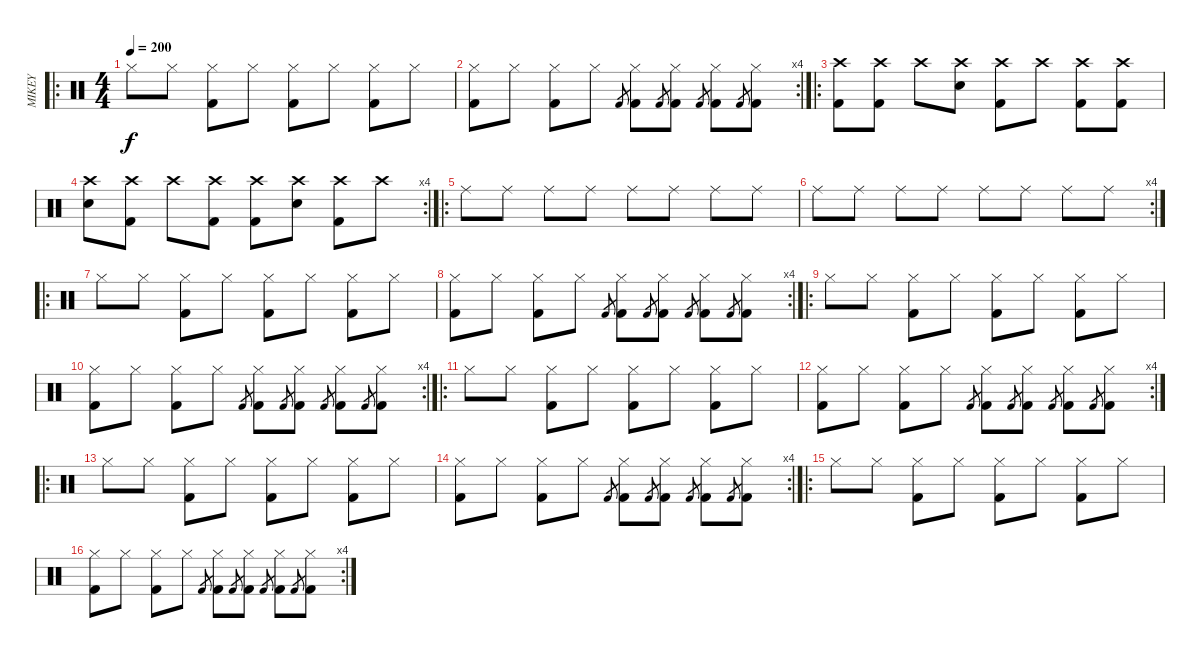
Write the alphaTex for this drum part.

\track ("MIKEY" "MIKEY") {instrument percussion}
\staff {score}
\articulation defaults
\ro
\ts (4 4)
\tempo 200
\clef neutral
\ks c "Hi-Hat (closed)".8{dy f} "Hi-Hat (closed)".8
("Kick (hit) 2" "Hi-Hat (closed)").8 "Hi-Hat (closed)".8 ("Kick (hit) 2" "Hi-Hat (closed)").8 "Hi-Hat (closed)".8 ("Kick (hit) 2" "Hi-Hat (closed)").8 "Hi-Hat (closed)".8 |
\rc 4
("Kick (hit) 2" "Hi-Hat (closed)").8 "Hi-Hat (closed)".8 ("Kick (hit) 2" "Hi-Hat (closed)").8 "Hi-Hat (closed)".8 "Kick (hit) 2".8{gr} ("Kick (hit) 2" "Hi-Hat (closed)").8 "Kick (hit) 2".8{gr} ("Kick (hit) 2" "Hi-Hat (closed)").8 "Kick (hit) 2".8{gr} ("Kick (hit) 2" "Hi-Hat (closed)").8 "Kick (hit) 2".8{gr} ("Kick (hit) 2" "Hi-Hat (closed)").8 |
\ro
("Kick (hit) 2" "Crash high (hit)").8 ("Kick (hit) 2" "Crash high (hit)").8 "Crash high (hit)".8 ("Snare (hit) 2" "Crash high (hit)").8 ("Kick (hit) 2" "Crash high (hit)").8 "Crash high (hit)".8 ("Kick (hit) 2" "Crash high (hit)").8 ("Kick (hit) 2" "Crash high (hit)").8 |
\rc 4
("Snare (hit) 2" "Crash high (hit)").8 ("Kick (hit) 2" "Crash high (hit)").8 "Crash high (hit)".8 ("Kick (hit) 2" "Crash high (hit)").8 ("Kick (hit) 2" "Crash high (hit)").8 ("Snare (hit) 2" "Crash high (hit)").8 ("Kick (hit) 2" "Crash high (hit)").8 "Crash high (hit)".8 |
\ro "Ride (middle)".8 "Ride (middle)".8 "Ride (middle)".8 "Ride (middle)".8 "Ride (middle)".8 "Ride (middle)".8 "Ride (middle)".8 "Ride (middle)".8
|
\rc 4 "Ride (middle)".8 "Ride (middle)".8 "Ride (middle)".8 "Ride (middle)".8 "Ride (middle)".8 "Ride (middle)".8 "Ride (middle)".8 "Ride (middle)".8
|
\ro "Hi-Hat (closed)".8 "Hi-Hat (closed)".8
("Kick (hit) 2" "Hi-Hat (closed)").8 "Hi-Hat (closed)".8 ("Kick (hit) 2" "Hi-Hat (closed)").8 "Hi-Hat (closed)".8 ("Kick (hit) 2" "Hi-Hat (closed)").8 "Hi-Hat (closed)".8 |
\rc 4
("Kick (hit) 2" "Hi-Hat (closed)").8 "Hi-Hat (closed)".8 ("Kick (hit) 2" "Hi-Hat (closed)").8 "Hi-Hat (closed)".8 "Kick (hit) 2".8{gr} ("Kick (hit) 2" "Hi-Hat (closed)").8 "Kick (hit) 2".8{gr} ("Kick (hit) 2" "Hi-Hat (closed)").8 "Kick (hit) 2".8{gr} ("Kick (hit) 2" "Hi-Hat (closed)").8 "Kick (hit) 2".8{gr} ("Kick (hit) 2" "Hi-Hat (closed)").8 |
\ro "Hi-Hat (closed)".8 "Hi-Hat (closed)".8
("Kick (hit) 2" "Hi-Hat (closed)").8 "Hi-Hat (closed)".8 ("Kick (hit) 2" "Hi-Hat (closed)").8 "Hi-Hat (closed)".8 ("Kick (hit) 2" "Hi-Hat (closed)").8 "Hi-Hat (closed)".8 |
\rc 4
("Kick (hit) 2" "Hi-Hat (closed)").8 "Hi-Hat (closed)".8 ("Kick (hit) 2" "Hi-Hat (closed)").8 "Hi-Hat (closed)".8 "Kick (hit) 2".8{gr} ("Kick (hit) 2" "Hi-Hat (closed)").8 "Kick (hit) 2".8{gr} ("Kick (hit) 2" "Hi-Hat (closed)").8 "Kick (hit) 2".8{gr} ("Kick (hit) 2" "Hi-Hat (closed)").8 "Kick (hit) 2".8{gr} ("Kick (hit) 2" "Hi-Hat (closed)").8 |
\ro "Hi-Hat (closed)".8 "Hi-Hat (closed)".8
("Kick (hit) 2" "Hi-Hat (closed)").8 "Hi-Hat (closed)".8 ("Kick (hit) 2" "Hi-Hat (closed)").8 "Hi-Hat (closed)".8 ("Kick (hit) 2" "Hi-Hat (closed)").8 "Hi-Hat (closed)".8 |
\rc 4
("Kick (hit) 2" "Hi-Hat (closed)").8 "Hi-Hat (closed)".8 ("Kick (hit) 2" "Hi-Hat (closed)").8 "Hi-Hat (closed)".8 "Kick (hit) 2".8{gr} ("Kick (hit) 2" "Hi-Hat (closed)").8 "Kick (hit) 2".8{gr} ("Kick (hit) 2" "Hi-Hat (closed)").8 "Kick (hit) 2".8{gr} ("Kick (hit) 2" "Hi-Hat (closed)").8 "Kick (hit) 2".8{gr} ("Kick (hit) 2" "Hi-Hat (closed)").8 |
\ro "Hi-Hat (closed)".8 "Hi-Hat (closed)".8
("Kick (hit) 2" "Hi-Hat (closed)").8 "Hi-Hat (closed)".8 ("Kick (hit) 2" "Hi-Hat (closed)").8 "Hi-Hat (closed)".8 ("Kick (hit) 2" "Hi-Hat (closed)").8 "Hi-Hat (closed)".8 |
\rc 4
("Kick (hit) 2" "Hi-Hat (closed)").8 "Hi-Hat (closed)".8 ("Kick (hit) 2" "Hi-Hat (closed)").8 "Hi-Hat (closed)".8 "Kick (hit) 2".8{gr} ("Kick (hit) 2" "Hi-Hat (closed)").8 "Kick (hit) 2".8{gr} ("Kick (hit) 2" "Hi-Hat (closed)").8 "Kick (hit) 2".8{gr} ("Kick (hit) 2" "Hi-Hat (closed)").8 "Kick (hit) 2".8{gr} ("Kick (hit) 2" "Hi-Hat (closed)").8 |
\ro "Hi-Hat (closed)".8 "Hi-Hat (closed)".8
("Kick (hit) 2" "Hi-Hat (closed)").8 "Hi-Hat (closed)".8 ("Kick (hit) 2" "Hi-Hat (closed)").8 "Hi-Hat (closed)".8 ("Kick (hit) 2" "Hi-Hat (closed)").8 "Hi-Hat (closed)".8 |
\rc 4
("Kick (hit) 2" "Hi-Hat (closed)").8 "Hi-Hat (closed)".8 ("Kick (hit) 2" "Hi-Hat (closed)").8 "Hi-Hat (closed)".8 "Kick (hit) 2".8{gr} ("Kick (hit) 2" "Hi-Hat (closed)").8 "Kick (hit) 2".8{gr} ("Kick (hit) 2" "Hi-Hat (closed)").8 "Kick (hit) 2".8{gr} ("Kick (hit) 2" "Hi-Hat (closed)").8 "Kick (hit) 2".8{gr} ("Kick (hit) 2" "Hi-Hat (closed)").8
